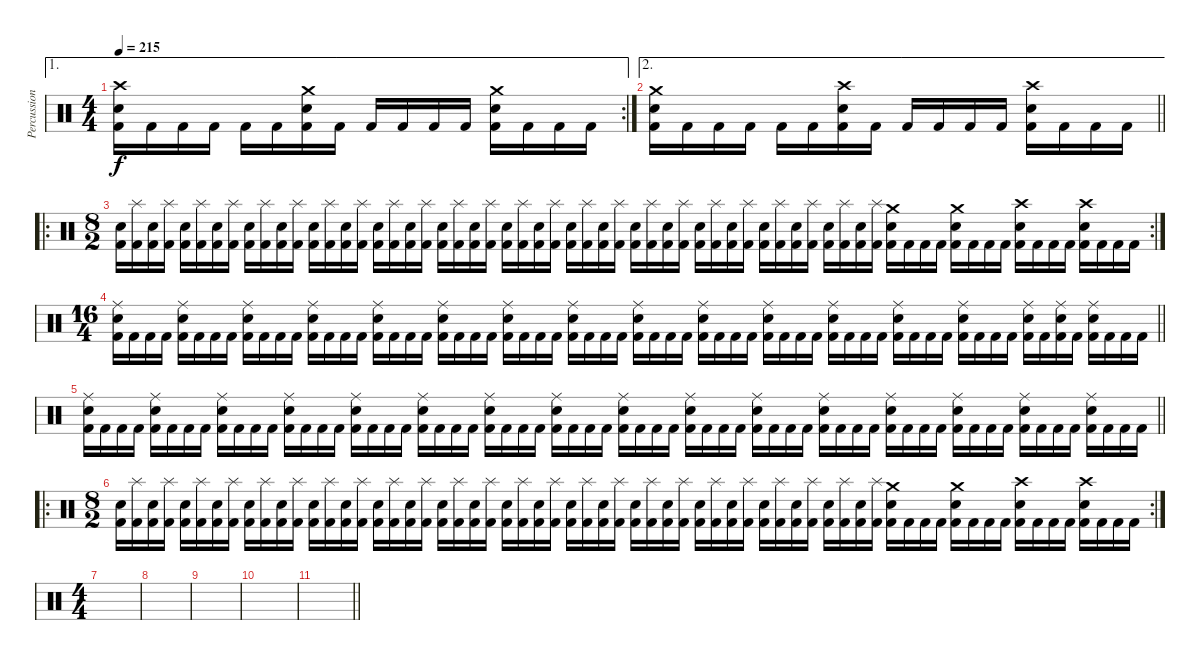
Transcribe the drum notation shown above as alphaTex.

\track ("Percussions" "Percussion") {instrument percussion}
\staff {score}
\articulation defaults
\ae 1
\rc 2
\ts (4 4)
\tempo 215
\clef neutral
\ks c
("Crash high (hit)" "Electric Snare (hit)" "Kick (hit) 2").16{dy f} "Kick (hit) 2".16 "Kick (hit) 2".16 "Kick (hit) 2".16 "Kick (hit) 2".16 "Kick (hit) 2".16 ("Crash medium (hit)" "Electric Snare (hit)" "Kick (hit) 2").16 "Kick (hit) 2".16 "Kick (hit) 2".16 "Kick (hit) 2".16 "Kick (hit) 2".16 "Kick (hit) 2".16 ("Crash medium (hit)" "Electric Snare (hit)" "Kick (hit) 2").16 "Kick (hit) 2".16 "Kick (hit) 2".16 "Kick (hit) 2".16 |
\ae 2
\barLineRight lightlight
("Crash medium (hit)" "Electric Snare (hit)" "Kick (hit) 2").16 "Kick (hit) 2".16 "Kick (hit) 2".16 "Kick (hit) 2".16 "Kick (hit) 2".16 "Kick (hit) 2".16 ("Crash high (hit)" "Electric Snare (hit)" "Kick (hit) 2").16 "Kick (hit) 2".16 "Kick (hit) 2".16 "Kick (hit) 2".16 "Kick (hit) 2".16 "Kick (hit) 2".16 ("Crash high (hit)" "Electric Snare (hit)" "Kick (hit) 2").16 "Kick (hit) 2".16 "Kick (hit) 2".16 "Kick (hit) 2".16 |
\ro
\rc 2
\ts (8 2)
("Electric Snare (hit)" "Kick (hit) 2").16 ("Splash (hit)" "Kick (hit) 2").16 ("Electric Snare (hit)" "Kick (hit) 2").16 ("Splash (hit)" "Kick (hit) 2").16 ("Electric Snare (hit)" "Kick (hit) 2").16 ("Splash (hit)" "Kick (hit) 2").16 ("Electric Snare (hit)" "Kick (hit) 2").16 ("Splash (hit)" "Kick (hit) 2").16 ("Electric Snare (hit)" "Kick (hit) 2").16 ("Splash (hit)" "Kick (hit) 2").16 ("Electric Snare (hit)" "Kick (hit) 2").16 ("Splash (hit)" "Kick (hit) 2").16 ("Electric Snare (hit)" "Kick (hit) 2").16 ("Splash (hit)" "Kick (hit) 2").16 ("Electric Snare (hit)" "Kick (hit) 2").16 ("Splash (hit)" "Kick (hit) 2").16 ("Electric Snare (hit)" "Kick (hit) 2").16 ("Splash (hit)" "Kick (hit) 2").16 ("Electric Snare (hit)" "Kick (hit) 2").16 ("Splash (hit)" "Kick (hit) 2").16 ("Electric Snare (hit)" "Kick (hit) 2").16 ("Splash (hit)" "Kick (hit) 2").16 ("Electric Snare (hit)" "Kick (hit) 2").16 ("Splash (hit)" "Kick (hit) 2").16 ("Electric Snare (hit)" "Kick (hit) 2").16 ("Splash (hit)" "Kick (hit) 2").16 ("Electric Snare (hit)" "Kick (hit) 2").16 ("Splash (hit)" "Kick (hit) 2").16 ("Electric Snare (hit)" "Kick (hit) 2").16 ("Splash (hit)" "Kick (hit) 2").16 ("Electric Snare (hit)" "Kick (hit) 2").16 ("Splash (hit)" "Kick (hit) 2").16 ("Electric Snare (hit)" "Kick (hit) 2").16 ("Splash (hit)" "Kick (hit) 2").16 ("Electric Snare (hit)" "Kick (hit) 2").16 ("Splash (hit)" "Kick (hit) 2").16 ("Electric Snare (hit)" "Kick (hit) 2").16 ("Splash (hit)" "Kick (hit) 2").16 ("Electric Snare (hit)" "Kick (hit) 2").16 ("Splash (hit)" "Kick (hit) 2").16 ("Electric Snare (hit)" "Kick (hit) 2").16 ("Splash (hit)" "Kick (hit) 2").16 ("Electric Snare (hit)" "Kick (hit) 2").16 ("Splash (hit)" "Kick (hit) 2").16 ("Electric Snare (hit)" "Kick (hit) 2").16 ("Splash (hit)" "Kick (hit) 2").16 ("Electric Snare (hit)" "Kick (hit) 2").16 ("Splash (hit)" "Kick (hit) 2").16 ("Crash medium (hit)" "Electric Snare (hit)" "Kick (hit) 2").16 "Kick (hit) 2".16 "Kick (hit) 2".16 "Kick (hit) 2".16 ("Crash medium (hit)" "Electric Snare (hit)" "Kick (hit) 2").16 "Kick (hit) 2".16 "Kick (hit) 2".16 "Kick (hit) 2".16 ("Crash high (hit)" "Electric Snare (hit)" "Kick (hit) 2").16 "Kick (hit) 2".16 "Kick (hit) 2".16 "Kick (hit) 2".16 ("Crash high (hit)" "Electric Snare (hit)" "Kick (hit) 2").16 "Kick (hit) 2".16 "Kick (hit) 2".16 "Kick (hit) 2".16 |
\ts (16 4)
\barLineRight lightlight
("Ride (middle)" "Electric Snare (hit)" "Kick (hit) 2").16 "Kick (hit) 2".16 "Kick (hit) 2".16 "Kick (hit) 2".16 ("Ride (middle)" "Electric Snare (hit)" "Kick (hit) 2").16 "Kick (hit) 2".16 "Kick (hit) 2".16 "Kick (hit) 2".16 ("Ride (middle)" "Electric Snare (hit)" "Kick (hit) 2").16 "Kick (hit) 2".16 "Kick (hit) 2".16 "Kick (hit) 2".16 ("Ride (middle)" "Electric Snare (hit)" "Kick (hit) 2").16 "Kick (hit) 2".16 "Kick (hit) 2".16 "Kick (hit) 2".16 ("Ride (middle)" "Electric Snare (hit)" "Kick (hit) 2").16 "Kick (hit) 2".16 "Kick (hit) 2".16 "Kick (hit) 2".16 ("Ride (middle)" "Electric Snare (hit)" "Kick (hit) 2").16 "Kick (hit) 2".16 "Kick (hit) 2".16 "Kick (hit) 2".16 ("Ride (middle)" "Electric Snare (hit)" "Kick (hit) 2").16 "Kick (hit) 2".16 "Kick (hit) 2".16 "Kick (hit) 2".16 ("Ride (middle)" "Electric Snare (hit)" "Kick (hit) 2").16 "Kick (hit) 2".16 "Kick (hit) 2".16 "Kick (hit) 2".16 ("Ride (middle)" "Electric Snare (hit)" "Kick (hit) 2").16 "Kick (hit) 2".16 "Kick (hit) 2".16 "Kick (hit) 2".16 ("Ride (middle)" "Electric Snare (hit)" "Kick (hit) 2").16 "Kick (hit) 2".16 "Kick (hit) 2".16 "Kick (hit) 2".16 ("Ride (middle)" "Electric Snare (hit)" "Kick (hit) 2").16 "Kick (hit) 2".16 "Kick (hit) 2".16 "Kick (hit) 2".16 ("Ride (middle)" "Electric Snare (hit)" "Kick (hit) 2").16 "Kick (hit) 2".16 "Kick (hit) 2".16 "Kick (hit) 2".16 ("Ride (middle)" "Electric Snare (hit)" "Kick (hit) 2").16 "Kick (hit) 2".16 "Kick (hit) 2".16 "Kick (hit) 2".16 ("Ride (middle)" "Electric Snare (hit)" "Kick (hit) 2").16 "Kick (hit) 2".16 "Kick (hit) 2".16 "Kick (hit) 2".16 ("Ride (middle)" "Electric Snare (hit)" "Kick (hit) 2").16 "Kick (hit) 2".16 ("Ride (middle)" "Electric Snare (hit)" "Kick (hit) 2").16 "Kick (hit) 2".16 ("Ride (middle)" "Electric Snare (hit)" "Kick (hit) 2").16 "Kick (hit) 2".16 "Kick (hit) 2".16 "Kick (hit) 2".16 |
\barLineRight lightlight
("Ride (middle)" "Electric Snare (hit)" "Kick (hit) 2").16 "Kick (hit) 2".16 "Kick (hit) 2".16 "Kick (hit) 2".16 ("Ride (middle)" "Electric Snare (hit)" "Kick (hit) 2").16 "Kick (hit) 2".16 "Kick (hit) 2".16 "Kick (hit) 2".16 ("Ride (middle)" "Electric Snare (hit)" "Kick (hit) 2").16 "Kick (hit) 2".16 "Kick (hit) 2".16 "Kick (hit) 2".16 ("Ride (middle)" "Electric Snare (hit)" "Kick (hit) 2").16 "Kick (hit) 2".16 "Kick (hit) 2".16 "Kick (hit) 2".16 ("Ride (middle)" "Electric Snare (hit)" "Kick (hit) 2").16 "Kick (hit) 2".16 "Kick (hit) 2".16 "Kick (hit) 2".16 ("Ride (middle)" "Electric Snare (hit)" "Kick (hit) 2").16 "Kick (hit) 2".16 "Kick (hit) 2".16 "Kick (hit) 2".16 ("Ride (middle)" "Electric Snare (hit)" "Kick (hit) 2").16 "Kick (hit) 2".16 "Kick (hit) 2".16 "Kick (hit) 2".16 ("Ride (middle)" "Electric Snare (hit)" "Kick (hit) 2").16 "Kick (hit) 2".16 "Kick (hit) 2".16 "Kick (hit) 2".16 ("Ride (middle)" "Electric Snare (hit)" "Kick (hit) 2").16 "Kick (hit) 2".16 "Kick (hit) 2".16 "Kick (hit) 2".16 ("Ride (middle)" "Electric Snare (hit)" "Kick (hit) 2").16 "Kick (hit) 2".16 "Kick (hit) 2".16 "Kick (hit) 2".16 ("Ride (middle)" "Electric Snare (hit)" "Kick (hit) 2").16 "Kick (hit) 2".16 "Kick (hit) 2".16 "Kick (hit) 2".16 ("Ride (middle)" "Electric Snare (hit)" "Kick (hit) 2").16 "Kick (hit) 2".16 "Kick (hit) 2".16 "Kick (hit) 2".16 ("Ride (middle)" "Electric Snare (hit)" "Kick (hit) 2").16 "Kick (hit) 2".16 "Kick (hit) 2".16 "Kick (hit) 2".16 ("Ride (middle)" "Electric Snare (hit)" "Kick (hit) 2").16 "Kick (hit) 2".16 "Kick (hit) 2".16 "Kick (hit) 2".16 ("Ride (middle)" "Electric Snare (hit)" "Kick (hit) 2").16 "Kick (hit) 2".16 "Kick (hit) 2".16 "Kick (hit) 2".16 ("Ride (middle)" "Electric Snare (hit)" "Kick (hit) 2").16 "Kick (hit) 2".16 "Kick (hit) 2".16 "Kick (hit) 2".16 |
\ro
\rc 2
\ts (8 2)
("Electric Snare (hit)" "Kick (hit) 2").16 ("Splash (hit)" "Kick (hit) 2").16 ("Electric Snare (hit)" "Kick (hit) 2").16 ("Splash (hit)" "Kick (hit) 2").16 ("Electric Snare (hit)" "Kick (hit) 2").16 ("Splash (hit)" "Kick (hit) 2").16 ("Electric Snare (hit)" "Kick (hit) 2").16 ("Splash (hit)" "Kick (hit) 2").16 ("Electric Snare (hit)" "Kick (hit) 2").16 ("Splash (hit)" "Kick (hit) 2").16 ("Electric Snare (hit)" "Kick (hit) 2").16 ("Splash (hit)" "Kick (hit) 2").16 ("Electric Snare (hit)" "Kick (hit) 2").16 ("Splash (hit)" "Kick (hit) 2").16 ("Electric Snare (hit)" "Kick (hit) 2").16 ("Splash (hit)" "Kick (hit) 2").16 ("Electric Snare (hit)" "Kick (hit) 2").16 ("Splash (hit)" "Kick (hit) 2").16 ("Electric Snare (hit)" "Kick (hit) 2").16 ("Splash (hit)" "Kick (hit) 2").16 ("Electric Snare (hit)" "Kick (hit) 2").16 ("Splash (hit)" "Kick (hit) 2").16 ("Electric Snare (hit)" "Kick (hit) 2").16 ("Splash (hit)" "Kick (hit) 2").16 ("Electric Snare (hit)" "Kick (hit) 2").16 ("Splash (hit)" "Kick (hit) 2").16 ("Electric Snare (hit)" "Kick (hit) 2").16 ("Splash (hit)" "Kick (hit) 2").16 ("Electric Snare (hit)" "Kick (hit) 2").16 ("Splash (hit)" "Kick (hit) 2").16 ("Electric Snare (hit)" "Kick (hit) 2").16 ("Splash (hit)" "Kick (hit) 2").16 ("Electric Snare (hit)" "Kick (hit) 2").16 ("Splash (hit)" "Kick (hit) 2").16 ("Electric Snare (hit)" "Kick (hit) 2").16 ("Splash (hit)" "Kick (hit) 2").16 ("Electric Snare (hit)" "Kick (hit) 2").16 ("Splash (hit)" "Kick (hit) 2").16 ("Electric Snare (hit)" "Kick (hit) 2").16 ("Splash (hit)" "Kick (hit) 2").16 ("Electric Snare (hit)" "Kick (hit) 2").16 ("Splash (hit)" "Kick (hit) 2").16 ("Electric Snare (hit)" "Kick (hit) 2").16 ("Splash (hit)" "Kick (hit) 2").16 ("Electric Snare (hit)" "Kick (hit) 2").16 ("Splash (hit)" "Kick (hit) 2").16 ("Electric Snare (hit)" "Kick (hit) 2").16 ("Splash (hit)" "Kick (hit) 2").16 ("Crash medium (hit)" "Electric Snare (hit)" "Kick (hit) 2").16 "Kick (hit) 2".16 "Kick (hit) 2".16 "Kick (hit) 2".16 ("Crash medium (hit)" "Electric Snare (hit)" "Kick (hit) 2").16 "Kick (hit) 2".16 "Kick (hit) 2".16 "Kick (hit) 2".16 ("Crash high (hit)" "Electric Snare (hit)" "Kick (hit) 2").16 "Kick (hit) 2".16 "Kick (hit) 2".16 "Kick (hit) 2".16 ("Crash high (hit)" "Electric Snare (hit)" "Kick (hit) 2").16 "Kick (hit) 2".16 "Kick (hit) 2".16 "Kick (hit) 2".16 |
\ts (4 4)
|
|
|
|
\barLineRight lightlight
